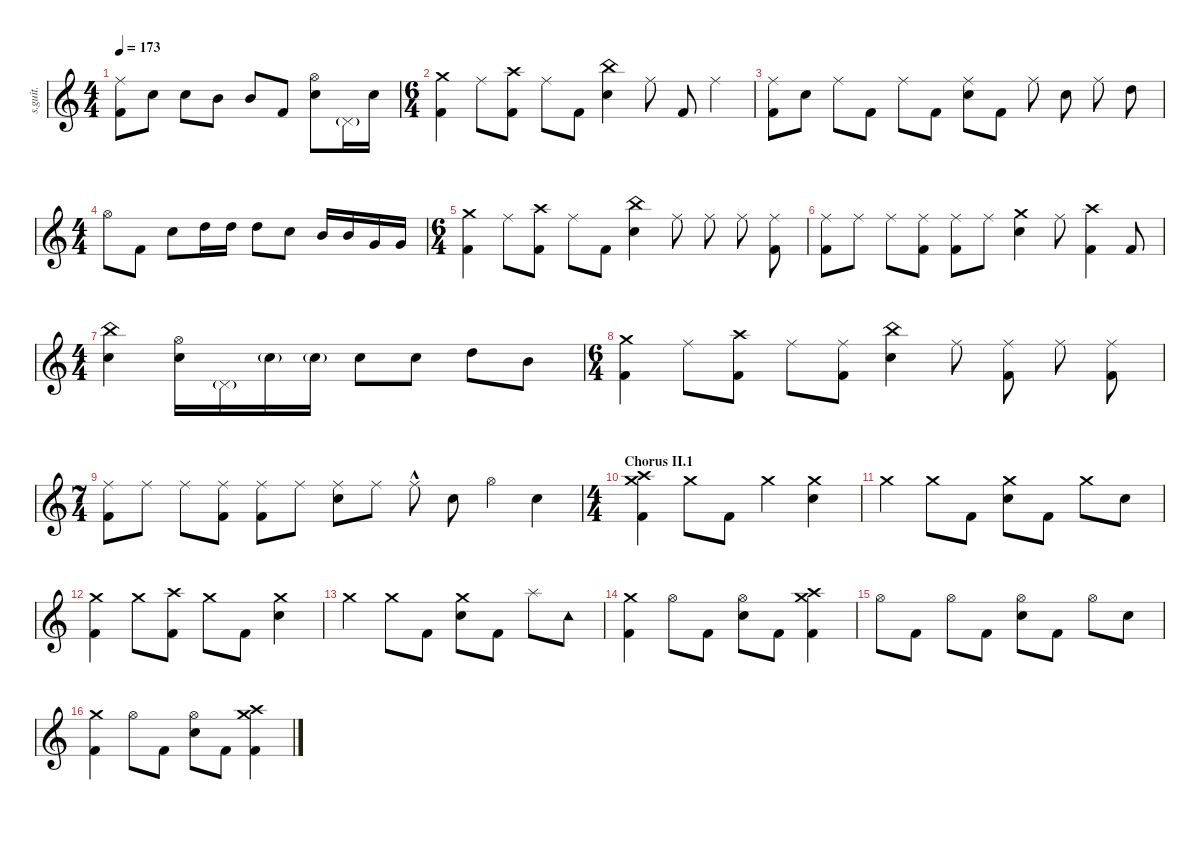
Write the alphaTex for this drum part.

\defaultSystemsLayout 4
\hideDynamics
\bracketExtendMode nobrackets
\track ("II" "s.guit.") {instrument percussion}
\staff {score}
\articulation defaults
\ts (4 4)
\beaming (8 2 2 2 2)
\tempo 173
\clef g2
\ks c
("Ride (middle)" "Kick (hit) 2").8{lyrics (0 "") lyrics (1 "") lyrics (2 "") lyrics (3 "") lyrics (4 "") dy mf} "Snare (hit) 2".8{lyrics (0 "") lyrics (1 "") lyrics (2 "") lyrics (3 "") lyrics (4 "")} "Snare (hit) 2".8{lyrics (0 "") lyrics (1 "") lyrics (2 "") lyrics (3 "") lyrics (4 "")} "Mid Tom (hit)".8{lyrics (0 "") lyrics (1 "") lyrics (2 "") lyrics (3 "") lyrics (4 "")} "Mid Tom (hit)".8{lyrics (0 "") lyrics (1 "") lyrics (2 "") lyrics (3 "") lyrics (4 "")} "Kick (hit) 2".8{lyrics (0 "") lyrics (1 "") lyrics (2 "") lyrics (3 "") lyrics (4 "")} ("Snare (hit) 2" "Hi-Hat (open)").8{lyrics (0 "") lyrics (1 "") lyrics (2 "") lyrics (3 "") lyrics (4 "")} "Pedal Hi-Hat (hit)"{g}.16{lyrics (0 "") lyrics (1 "") lyrics (2 "") lyrics (3 "") lyrics (4 "") dy pp} "Snare (hit) 2".16{lyrics (0 "") lyrics (1 "") lyrics (2 "") lyrics (3 "") lyrics (4 "") dy mf} |
\ts (6 4)
\beaming (8 2 2 2 2)
("Kick (hit) 2" "Crash medium (hit)").4{lyrics (0 "") lyrics (1 "") lyrics (2 "") lyrics (3 "") lyrics (4 "")} "Ride (middle)".8{lyrics (0 "") lyrics (1 "") lyrics (2 "") lyrics (3 "") lyrics (4 "")} ("Kick (hit) 2" "Crash high (hit)").8{lyrics (0 "") lyrics (1 "") lyrics (2 "") lyrics (3 "") lyrics (4 "")} "Ride (middle)".8{lyrics (0 "") lyrics (1 "") lyrics (2 "") lyrics (3 "") lyrics (4 "")} "Kick (hit) 2".8{lyrics (0 "") lyrics (1 "") lyrics (2 "") lyrics (3 "") lyrics (4 "")} ("Snare (hit) 2" "China (hit)").4{lyrics (0 "") lyrics (1 "") lyrics (2 "") lyrics (3 "") lyrics (4 "")} "Ride (middle)".8{lyrics (0 "") lyrics (1 "") lyrics (2 "") lyrics (3 "") lyrics (4 "")} "Kick (hit) 2".8{lyrics (0 "") lyrics (1 "") lyrics (2 "") lyrics (3 "") lyrics (4 "")} "Ride (middle)".4{lyrics (0 "") lyrics (1 "") lyrics (2 "") lyrics (3 "") lyrics (4 "")} |
("Ride (middle)" "Kick (hit) 2").8{lyrics (0 "") lyrics (1 "") lyrics (2 "") lyrics (3 "") lyrics (4 "")} "Snare (hit) 2".8{lyrics (0 "") lyrics (1 "") lyrics (2 "") lyrics (3 "") lyrics (4 "")} "Ride (middle)".8{lyrics (0 "") lyrics (1 "") lyrics (2 "") lyrics (3 "") lyrics (4 "")} "Kick (hit) 2".8{lyrics (0 "") lyrics (1 "") lyrics (2 "") lyrics (3 "") lyrics (4 "")} "Ride (middle)".8{lyrics (0 "") lyrics (1 "") lyrics (2 "") lyrics (3 "") lyrics (4 "")} "Kick (hit) 2".8{lyrics (0 "") lyrics (1 "") lyrics (2 "") lyrics (3 "") lyrics (4 "")} ("Ride (middle)" "Snare (hit) 2").8{lyrics (0 "") lyrics (1 "") lyrics (2 "") lyrics (3 "") lyrics (4 "")} "Kick (hit) 2".8{lyrics (0 "") lyrics (1 "") lyrics (2 "") lyrics (3 "") lyrics (4 "")} "Ride (middle)".8{lyrics (0 "") lyrics (1 "") lyrics (2 "") lyrics (3 "") lyrics (4 "")} "Snare (hit) 2".8{lyrics (0 "") lyrics (1 "") lyrics (2 "") lyrics (3 "") lyrics (4 "")} "Ride (middle)".8{lyrics (0 "") lyrics (1 "") lyrics (2 "") lyrics (3 "") lyrics (4 "")} "High Tom (hit)".8{lyrics (0 "") lyrics (1 "") lyrics (2 "") lyrics (3 "") lyrics (4 "")} |
\ts (4 4)
\beaming (8 2 2 2 2)
"Hi-Hat (open)".8{lyrics (0 "") lyrics (1 "") lyrics (2 "") lyrics (3 "") lyrics (4 "")} "Kick (hit) 2".8{lyrics (0 "") lyrics (1 "") lyrics (2 "") lyrics (3 "") lyrics (4 "")} "Snare (hit) 2".8{lyrics (0 "") lyrics (1 "") lyrics (2 "") lyrics (3 "") lyrics (4 "")} "High Tom (hit)".16{lyrics (0 "") lyrics (1 "") lyrics (2 "") lyrics (3 "") lyrics (4 "")} "High Tom (hit)".16{lyrics (0 "") lyrics (1 "") lyrics (2 "") lyrics (3 "") lyrics (4 "")} "High Tom (hit)".8{lyrics (0 "") lyrics (1 "") lyrics (2 "") lyrics (3 "") lyrics (4 "")} "Snare (hit) 2".8{lyrics (0 "") lyrics (1 "") lyrics (2 "") lyrics (3 "") lyrics (4 "")} "Mid Tom (hit)".16{lyrics (0 "") lyrics (1 "") lyrics (2 "") lyrics (3 "") lyrics (4 "")} "Mid Tom (hit)".16{lyrics (0 "") lyrics (1 "") lyrics (2 "") lyrics (3 "") lyrics (4 "")} "Very Low Tom (hit)".16{lyrics (0 "") lyrics (1 "") lyrics (2 "") lyrics (3 "") lyrics (4 "")} "Very Low Tom (hit)".16{lyrics (0 "") lyrics (1 "") lyrics (2 "") lyrics (3 "") lyrics (4 "")} |
\ts (6 4)
\beaming (8 2 2 2 2)
("Kick (hit) 2" "Crash medium (hit)").4{lyrics (0 "") lyrics (1 "") lyrics (2 "") lyrics (3 "") lyrics (4 "")} "Ride (middle)".8{lyrics (0 "") lyrics (1 "") lyrics (2 "") lyrics (3 "") lyrics (4 "")} ("Kick (hit) 2" "Crash high (hit)").8{lyrics (0 "") lyrics (1 "") lyrics (2 "") lyrics (3 "") lyrics (4 "")} "Ride (middle)".8{lyrics (0 "") lyrics (1 "") lyrics (2 "") lyrics (3 "") lyrics (4 "")} "Kick (hit) 2".8{lyrics (0 "") lyrics (1 "") lyrics (2 "") lyrics (3 "") lyrics (4 "")} ("Snare (hit) 2" "China (hit)").4{lyrics (0 "") lyrics (1 "") lyrics (2 "") lyrics (3 "") lyrics (4 "")} "Ride (middle)".8{lyrics (0 "") lyrics (1 "") lyrics (2 "") lyrics (3 "") lyrics (4 "")} "Ride (middle)".8{lyrics (0 "") lyrics (1 "") lyrics (2 "") lyrics (3 "") lyrics (4 "")} "Ride (middle)".8{lyrics (0 "") lyrics (1 "") lyrics (2 "") lyrics (3 "") lyrics (4 "")} ("Ride (middle)" "Kick (hit) 2").8{lyrics (0 "") lyrics (1 "") lyrics (2 "") lyrics (3 "") lyrics (4 "")} |
("Ride (middle)" "Kick (hit) 2").8{lyrics (0 "") lyrics (1 "") lyrics (2 "") lyrics (3 "") lyrics (4 "")} "Ride (middle)".8{lyrics (0 "") lyrics (1 "") lyrics (2 "") lyrics (3 "") lyrics (4 "")} "Ride (middle)".8{lyrics (0 "") lyrics (1 "") lyrics (2 "") lyrics (3 "") lyrics (4 "")} ("Kick (hit) 2" "Ride (middle)").8{lyrics (0 "") lyrics (1 "") lyrics (2 "") lyrics (3 "") lyrics (4 "")} ("Ride (middle)" "Kick (hit) 2").8{lyrics (0 "") lyrics (1 "") lyrics (2 "") lyrics (3 "") lyrics (4 "")} "Ride (middle)".8{lyrics (0 "") lyrics (1 "") lyrics (2 "") lyrics (3 "") lyrics (4 "")} ("Snare (hit) 2" "Crash medium (hit)").4{lyrics (0 "") lyrics (1 "") lyrics (2 "") lyrics (3 "") lyrics (4 "")} "Ride (middle)".8{lyrics (0 "") lyrics (1 "") lyrics (2 "") lyrics (3 "") lyrics (4 "")} ("Kick (hit) 2" "Crash high (hit)").4{lyrics (0 "") lyrics (1 "") lyrics (2 "") lyrics (3 "") lyrics (4 "")} "Kick (hit) 2".8{lyrics (0 "") lyrics (1 "") lyrics (2 "") lyrics (3 "") lyrics (4 "")} |
\ts (4 4)
\beaming (8 2 2 2 2)
("China (hit)" "Snare (hit) 2").4{lyrics (0 "") lyrics (1 "") lyrics (2 "") lyrics (3 "") lyrics (4 "")} ("Snare (hit) 2" "Hi-Hat (open)").16{lyrics (0 "") lyrics (1 "") lyrics (2 "") lyrics (3 "") lyrics (4 "")} "Pedal Hi-Hat (hit)"{g}.16{lyrics (0 "") lyrics (1 "") lyrics (2 "") lyrics (3 "") lyrics (4 "") dy pp} "Snare (hit) 2"{g}.16{lyrics (0 "") lyrics (1 "") lyrics (2 "") lyrics (3 "") lyrics (4 "") dy p} "Snare (hit) 2"{g}.16{lyrics (0 "") lyrics (1 "") lyrics (2 "") lyrics (3 "") lyrics (4 "")} "Snare (hit) 2".8{lyrics (0 "") lyrics (1 "") lyrics (2 "") lyrics (3 "") lyrics (4 "") dy mf} "Snare (hit) 2".8{lyrics (0 "") lyrics (1 "") lyrics (2 "") lyrics (3 "") lyrics (4 "")} "High Tom (hit)".8{lyrics (0 "") lyrics (1 "") lyrics (2 "") lyrics (3 "") lyrics (4 "")} "Mid Tom (hit)".8{lyrics (0 "") lyrics (1 "") lyrics (2 "") lyrics (3 "") lyrics (4 "")} |
\ts (6 4)
\beaming (8 2 2 2 2)
("Kick (hit) 2" "Crash medium (hit)").4{lyrics (0 "") lyrics (1 "") lyrics (2 "") lyrics (3 "") lyrics (4 "")} "Ride (middle)".8{lyrics (0 "") lyrics (1 "") lyrics (2 "") lyrics (3 "") lyrics (4 "")} ("Kick (hit) 2" "Crash high (hit)").8{lyrics (0 "") lyrics (1 "") lyrics (2 "") lyrics (3 "") lyrics (4 "")} "Ride (middle)".8{lyrics (0 "") lyrics (1 "") lyrics (2 "") lyrics (3 "") lyrics (4 "")} ("Kick (hit) 2" "Ride (middle)").8{lyrics (0 "") lyrics (1 "") lyrics (2 "") lyrics (3 "") lyrics (4 "")} ("Snare (hit) 2" "China (hit)").4{lyrics (0 "") lyrics (1 "") lyrics (2 "") lyrics (3 "") lyrics (4 "")} "Ride (middle)".8{lyrics (0 "") lyrics (1 "") lyrics (2 "") lyrics (3 "") lyrics (4 "")} ("Kick (hit) 2" "Ride (middle)").8{lyrics (0 "") lyrics (1 "") lyrics (2 "") lyrics (3 "") lyrics (4 "")} "Ride (middle)".8{lyrics (0 "") lyrics (1 "") lyrics (2 "") lyrics (3 "") lyrics (4 "")} ("Ride (middle)" "Kick (hit) 2").8{lyrics (0 "") lyrics (1 "") lyrics (2 "") lyrics (3 "") lyrics (4 "")} |
\ts (7 4)
\beaming (8 2 2 2 2)
("Ride (middle)" "Kick (hit) 2").8{lyrics (0 "") lyrics (1 "") lyrics (2 "") lyrics (3 "") lyrics (4 "")} "Ride (middle)".8{lyrics (0 "") lyrics (1 "") lyrics (2 "") lyrics (3 "") lyrics (4 "")} "Ride (middle)".8{lyrics (0 "") lyrics (1 "") lyrics (2 "") lyrics (3 "") lyrics (4 "")} ("Kick (hit) 2" "Ride (middle)").8{lyrics (0 "") lyrics (1 "") lyrics (2 "") lyrics (3 "") lyrics (4 "")} ("Ride (middle)" "Kick (hit) 2").8{lyrics (0 "") lyrics (1 "") lyrics (2 "") lyrics (3 "") lyrics (4 "")} "Ride (middle)".8{lyrics (0 "") lyrics (1 "") lyrics (2 "") lyrics (3 "") lyrics (4 "")} ("Ride (middle)" "Snare (hit) 2").8{lyrics (0 "") lyrics (1 "") lyrics (2 "") lyrics (3 "") lyrics (4 "")} "Ride (middle)".8{lyrics (0 "") lyrics (1 "") lyrics (2 "") lyrics (3 "") lyrics (4 "")} "Ride (middle)"{hac}.8{lyrics (0 "") lyrics (1 "") lyrics (2 "") lyrics (3 "") lyrics (4 "")} "Snare (hit) 2".8{lyrics (0 "") lyrics (1 "") lyrics (2 "") lyrics (3 "") lyrics (4 "")} "Hi-Hat (open)".4{lyrics (0 "") lyrics (1 "") lyrics (2 "") lyrics (3 "") lyrics (4 "")} "Snare (hit) 2".4{lyrics (0 "") lyrics (1 "") lyrics (2 "") lyrics (3 "") lyrics (4 "")} |
\ts (4 4)
\beaming (8 2 2 2 2)
\section ("" "Chorus II.1")
("Kick (hit) 2" "Crash high (hit)" "Crash medium (hit)").4{lyrics (0 "") lyrics (1 "") lyrics (2 "") lyrics (3 "") lyrics (4 "")} "Crash medium (hit)".8{lyrics (0 "") lyrics (1 "") lyrics (2 "") lyrics (3 "") lyrics (4 "")} "Kick (hit) 2".8{lyrics (0 "") lyrics (1 "") lyrics (2 "") lyrics (3 "") lyrics (4 "")} "Crash medium (hit)".4{lyrics (0 "") lyrics (1 "") lyrics (2 "") lyrics (3 "") lyrics (4 "")} ("Snare (hit) 2" "Crash medium (hit)").4{lyrics (0 "") lyrics (1 "") lyrics (2 "") lyrics (3 "") lyrics (4 "")} |
"Crash medium (hit)".4{lyrics (0 "") lyrics (1 "") lyrics (2 "") lyrics (3 "") lyrics (4 "")} "Crash medium (hit)".8{lyrics (0 "") lyrics (1 "") lyrics (2 "") lyrics (3 "") lyrics (4 "")} "Kick (hit) 2".8{lyrics (0 "") lyrics (1 "") lyrics (2 "") lyrics (3 "") lyrics (4 "")} ("Crash medium (hit)" "Snare (hit) 2").8{lyrics (0 "") lyrics (1 "") lyrics (2 "") lyrics (3 "") lyrics (4 "")} "Kick (hit) 2".8{lyrics (0 "") lyrics (1 "") lyrics (2 "") lyrics (3 "") lyrics (4 "")} "Crash medium (hit)".8{lyrics (0 "") lyrics (1 "") lyrics (2 "") lyrics (3 "") lyrics (4 "")} "Snare (hit) 2".8{lyrics (0 "") lyrics (1 "") lyrics (2 "") lyrics (3 "") lyrics (4 "")} |
("Kick (hit) 2" "Crash medium (hit)").4{lyrics (0 "") lyrics (1 "") lyrics (2 "") lyrics (3 "") lyrics (4 "")} "Crash medium (hit)".8{lyrics (0 "") lyrics (1 "") lyrics (2 "") lyrics (3 "") lyrics (4 "")} ("Kick (hit) 2" "Crash high (hit)").8{lyrics (0 "") lyrics (1 "") lyrics (2 "") lyrics (3 "") lyrics (4 "")} "Crash medium (hit)".8{lyrics (0 "") lyrics (1 "") lyrics (2 "") lyrics (3 "") lyrics (4 "")} "Kick (hit) 2".8{lyrics (0 "") lyrics (1 "") lyrics (2 "") lyrics (3 "") lyrics (4 "")} ("Snare (hit) 2" "Crash medium (hit)").4{lyrics (0 "") lyrics (1 "") lyrics (2 "") lyrics (3 "") lyrics (4 "")} |
"Crash medium (hit)".4{lyrics (0 "") lyrics (1 "") lyrics (2 "") lyrics (3 "") lyrics (4 "")} "Crash medium (hit)".8{lyrics (0 "") lyrics (1 "") lyrics (2 "") lyrics (3 "") lyrics (4 "")} "Kick (hit) 2".8{lyrics (0 "") lyrics (1 "") lyrics (2 "") lyrics (3 "") lyrics (4 "")} ("Crash medium (hit)" "Snare (hit) 2").8{lyrics (0 "") lyrics (1 "") lyrics (2 "") lyrics (3 "") lyrics (4 "")} "Kick (hit) 2".8{lyrics (0 "") lyrics (1 "") lyrics (2 "") lyrics (3 "") lyrics (4 "")} "Splash (hit)".8{lyrics (0 "") lyrics (1 "") lyrics (2 "") lyrics (3 "") lyrics (4 "")} "Tambourine (hit)".8{lyrics (0 "") lyrics (1 "") lyrics (2 "") lyrics (3 "") lyrics (4 "")} |
("Kick (hit) 2" "Crash medium (hit)").4{lyrics (0 "") lyrics (1 "") lyrics (2 "") lyrics (3 "") lyrics (4 "")} "Hi-Hat (open)".8{lyrics (0 "") lyrics (1 "") lyrics (2 "") lyrics (3 "") lyrics (4 "")} "Kick (hit) 2".8{lyrics (0 "") lyrics (1 "") lyrics (2 "") lyrics (3 "") lyrics (4 "")} ("Snare (hit) 2" "Hi-Hat (open)").8{lyrics (0 "") lyrics (1 "") lyrics (2 "") lyrics (3 "") lyrics (4 "")} "Kick (hit) 2".8{lyrics (0 "") lyrics (1 "") lyrics (2 "") lyrics (3 "") lyrics (4 "")} ("Kick (hit) 2" "Crash high (hit)" "Crash medium (hit)").4{lyrics (0 "") lyrics (1 "") lyrics (2 "") lyrics (3 "") lyrics (4 "")} |
"Hi-Hat (open)".8{lyrics (0 "") lyrics (1 "") lyrics (2 "") lyrics (3 "") lyrics (4 "")} "Kick (hit) 2".8{lyrics (0 "") lyrics (1 "") lyrics (2 "") lyrics (3 "") lyrics (4 "")} "Hi-Hat (open)".8{lyrics (0 "") lyrics (1 "") lyrics (2 "") lyrics (3 "") lyrics (4 "")} "Kick (hit) 2".8{lyrics (0 "") lyrics (1 "") lyrics (2 "") lyrics (3 "") lyrics (4 "")} ("Hi-Hat (open)" "Snare (hit) 2").8{lyrics (0 "") lyrics (1 "") lyrics (2 "") lyrics (3 "") lyrics (4 "")} "Kick (hit) 2".8{lyrics (0 "") lyrics (1 "") lyrics (2 "") lyrics (3 "") lyrics (4 "")} "Hi-Hat (open)".8{lyrics (0 "") lyrics (1 "") lyrics (2 "") lyrics (3 "") lyrics (4 "")} "Snare (hit) 2".8{lyrics (0 "") lyrics (1 "") lyrics (2 "") lyrics (3 "") lyrics (4 "")} |
("Kick (hit) 2" "Crash medium (hit)").4{lyrics (0 "") lyrics (1 "") lyrics (2 "") lyrics (3 "") lyrics (4 "")} "Hi-Hat (open)".8{lyrics (0 "") lyrics (1 "") lyrics (2 "") lyrics (3 "") lyrics (4 "")} "Kick (hit) 2".8{lyrics (0 "") lyrics (1 "") lyrics (2 "") lyrics (3 "") lyrics (4 "")} ("Snare (hit) 2" "Hi-Hat (open)").8{lyrics (0 "") lyrics (1 "") lyrics (2 "") lyrics (3 "") lyrics (4 "")} "Kick (hit) 2".8{lyrics (0 "") lyrics (1 "") lyrics (2 "") lyrics (3 "") lyrics (4 "")} ("Kick (hit) 2" "Crash high (hit)" "Crash medium (hit)").4{lyrics (0 "") lyrics (1 "") lyrics (2 "") lyrics (3 "") lyrics (4 "")}
